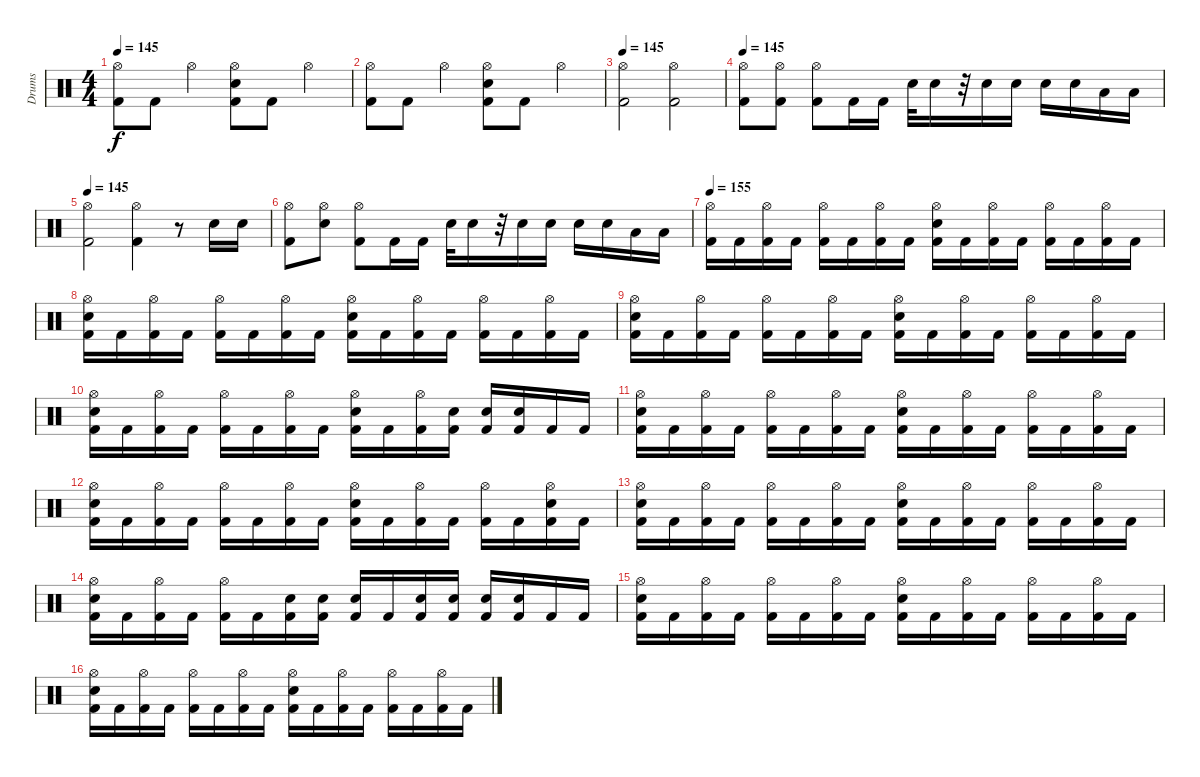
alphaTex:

\track ("Drums" "Drums") {instrument percussion}
\staff {score}
\articulation defaults
\ts (4 4)
\tempo 145
\clef neutral
\ks c
("Hi-Hat (open)" "Kick (hit) 2").8{dy f} "Kick (hit) 2".8 "Hi-Hat (open)".4 ("Hi-Hat (open)" "Electric Snare (hit)" "Kick (hit) 2").8 "Kick (hit) 2".8 "Hi-Hat (open)".4 |
("Hi-Hat (open)" "Kick (hit) 2").8 "Kick (hit) 2".8 "Hi-Hat (open)".4 ("Hi-Hat (open)" "Electric Snare (hit)" "Kick (hit) 2").8 "Kick (hit) 2".8 "Hi-Hat (open)".4 |
\tempo 145
("Hi-Hat (open)" "Kick (hit) 2").2 ("Hi-Hat (open)" "Kick (hit) 2").2 |
\tempo 145
("Hi-Hat (open)" "Kick (hit) 2").8 ("Hi-Hat (open)" "Kick (hit) 2").8 ("Hi-Hat (open)" "Kick (hit) 2").8 "Kick (hit) 2".16 "Kick (hit) 2".16 "Electric Snare (hit)".32 "Electric Snare (hit)".16 r.32 "Electric Snare (hit)".16 "Electric Snare (hit)".16 "Electric Snare (hit)".16 "Electric Snare (hit)".16 "Low Tom (hit)".16 "Low Tom (hit)".16 |
\tempo 145
("Hi-Hat (open)" "Kick (hit) 2").2 ("Hi-Hat (open)" "Kick (hit) 2").4 r.8 "Electric Snare (hit)".16 "Electric Snare (hit)".16 |
("Hi-Hat (open)" "Kick (hit) 2").8 ("Hi-Hat (open)" "Electric Snare (hit)").8 ("Hi-Hat (open)" "Kick (hit) 2").8 "Kick (hit) 2".16 "Kick (hit) 2".16 "Electric Snare (hit)".32 "Electric Snare (hit)".16 r.32 "Electric Snare (hit)".16 "Electric Snare (hit)".16 "Electric Snare (hit)".16 "Electric Snare (hit)".16 "Low Tom (hit)".16 "Low Tom (hit)".16 |
\tempo 155
("Hi-Hat (open)" "Kick (hit) 2").16 "Kick (hit) 2".16 ("Hi-Hat (open)" "Kick (hit) 2").16 "Kick (hit) 2".16 ("Hi-Hat (open)" "Kick (hit) 2").16 "Kick (hit) 2".16 ("Hi-Hat (open)" "Kick (hit) 2").16 "Kick (hit) 2".16 ("Hi-Hat (open)" "Electric Snare (hit)" "Kick (hit) 2").16 "Kick (hit) 2".16 ("Hi-Hat (open)" "Kick (hit) 2").16 "Kick (hit) 2".16 ("Hi-Hat (open)" "Kick (hit) 2").16 "Kick (hit) 2".16 ("Hi-Hat (open)" "Kick (hit) 2").16 "Kick (hit) 2".16 |
("Hi-Hat (open)" "Electric Snare (hit)" "Kick (hit) 2").16 "Kick (hit) 2".16 ("Hi-Hat (open)" "Kick (hit) 2").16 "Kick (hit) 2".16 ("Hi-Hat (open)" "Kick (hit) 2").16 "Kick (hit) 2".16 ("Hi-Hat (open)" "Kick (hit) 2").16 "Kick (hit) 2".16 ("Hi-Hat (open)" "Electric Snare (hit)" "Kick (hit) 2").16 "Kick (hit) 2".16 ("Hi-Hat (open)" "Kick (hit) 2").16 "Kick (hit) 2".16 ("Hi-Hat (open)" "Kick (hit) 2").16 "Kick (hit) 2".16 ("Hi-Hat (open)" "Kick (hit) 2").16 "Kick (hit) 2".16 |
("Hi-Hat (open)" "Electric Snare (hit)" "Kick (hit) 2").16 "Kick (hit) 2".16 ("Hi-Hat (open)" "Kick (hit) 2").16 "Kick (hit) 2".16 ("Hi-Hat (open)" "Kick (hit) 2").16 "Kick (hit) 2".16 ("Hi-Hat (open)" "Kick (hit) 2").16 "Kick (hit) 2".16 ("Hi-Hat (open)" "Electric Snare (hit)" "Kick (hit) 2").16 "Kick (hit) 2".16 ("Hi-Hat (open)" "Kick (hit) 2").16 "Kick (hit) 2".16 ("Hi-Hat (open)" "Kick (hit) 2").16 "Kick (hit) 2".16 ("Hi-Hat (open)" "Kick (hit) 2").16 "Kick (hit) 2".16 |
("Hi-Hat (open)" "Electric Snare (hit)" "Kick (hit) 2").16 "Kick (hit) 2".16 ("Hi-Hat (open)" "Kick (hit) 2").16 "Kick (hit) 2".16 ("Hi-Hat (open)" "Kick (hit) 2").16 "Kick (hit) 2".16 ("Hi-Hat (open)" "Kick (hit) 2").16 "Kick (hit) 2".16 ("Hi-Hat (open)" "Electric Snare (hit)" "Kick (hit) 2").16 "Kick (hit) 2".16 ("Hi-Hat (open)" "Kick (hit) 2").16 ("Electric Snare (hit)" "Kick (hit) 2").16 ("Electric Snare (hit)" "Kick (hit) 2").16 ("Electric Snare (hit)" "Kick (hit) 2").16 "Kick (hit) 2".16 "Kick (hit) 2".16 |
("Hi-Hat (open)" "Electric Snare (hit)" "Kick (hit) 2").16 "Kick (hit) 2".16 ("Hi-Hat (open)" "Kick (hit) 2").16 "Kick (hit) 2".16 ("Hi-Hat (open)" "Kick (hit) 2").16 "Kick (hit) 2".16 ("Hi-Hat (open)" "Kick (hit) 2").16 "Kick (hit) 2".16 ("Hi-Hat (open)" "Electric Snare (hit)" "Kick (hit) 2").16 "Kick (hit) 2".16 ("Hi-Hat (open)" "Kick (hit) 2").16 "Kick (hit) 2".16 ("Hi-Hat (open)" "Kick (hit) 2").16 "Kick (hit) 2".16 ("Hi-Hat (open)" "Kick (hit) 2").16 "Kick (hit) 2".16 |
("Hi-Hat (open)" "Electric Snare (hit)" "Kick (hit) 2").16 "Kick (hit) 2".16 ("Hi-Hat (open)" "Kick (hit) 2").16 "Kick (hit) 2".16 ("Hi-Hat (open)" "Kick (hit) 2").16 "Kick (hit) 2".16 ("Hi-Hat (open)" "Kick (hit) 2").16 "Kick (hit) 2".16 ("Hi-Hat (open)" "Electric Snare (hit)" "Kick (hit) 2").16 "Kick (hit) 2".16 ("Hi-Hat (open)" "Kick (hit) 2").16 "Kick (hit) 2".16 ("Hi-Hat (open)" "Kick (hit) 2").16 "Kick (hit) 2".16 ("Hi-Hat (open)" "Electric Snare (hit)" "Kick (hit) 2").16 "Kick (hit) 2".16 |
("Hi-Hat (open)" "Electric Snare (hit)" "Kick (hit) 2").16 "Kick (hit) 2".16 ("Hi-Hat (open)" "Kick (hit) 2").16 "Kick (hit) 2".16 ("Hi-Hat (open)" "Kick (hit) 2").16 "Kick (hit) 2".16 ("Hi-Hat (open)" "Kick (hit) 2").16 "Kick (hit) 2".16 ("Hi-Hat (open)" "Electric Snare (hit)" "Kick (hit) 2").16 "Kick (hit) 2".16 ("Hi-Hat (open)" "Kick (hit) 2").16 "Kick (hit) 2".16 ("Hi-Hat (open)" "Kick (hit) 2").16 "Kick (hit) 2".16 ("Hi-Hat (open)" "Kick (hit) 2").16 "Kick (hit) 2".16 |
("Hi-Hat (open)" "Electric Snare (hit)" "Kick (hit) 2").16 "Kick (hit) 2".16 ("Hi-Hat (open)" "Kick (hit) 2").16 "Kick (hit) 2".16 ("Hi-Hat (open)" "Kick (hit) 2").16 "Kick (hit) 2".16 ("Electric Snare (hit)" "Kick (hit) 2").16 ("Electric Snare (hit)" "Kick (hit) 2").16 ("Electric Snare (hit)" "Kick (hit) 2").16 "Kick (hit) 2".16 ("Electric Snare (hit)" "Kick (hit) 2").16 ("Electric Snare (hit)" "Kick (hit) 2").16 ("Electric Snare (hit)" "Kick (hit) 2").16 ("Electric Snare (hit)" "Kick (hit) 2").16 "Kick (hit) 2".16 "Kick (hit) 2".16 |
("Hi-Hat (open)" "Electric Snare (hit)" "Kick (hit) 2").16 "Kick (hit) 2".16 ("Hi-Hat (open)" "Kick (hit) 2").16 "Kick (hit) 2".16 ("Hi-Hat (open)" "Kick (hit) 2").16 "Kick (hit) 2".16 ("Hi-Hat (open)" "Kick (hit) 2").16 "Kick (hit) 2".16 ("Hi-Hat (open)" "Electric Snare (hit)" "Kick (hit) 2").16 "Kick (hit) 2".16 ("Hi-Hat (open)" "Kick (hit) 2").16 "Kick (hit) 2".16 ("Hi-Hat (open)" "Kick (hit) 2").16 "Kick (hit) 2".16 ("Hi-Hat (open)" "Kick (hit) 2").16 "Kick (hit) 2".16 |
("Hi-Hat (open)" "Electric Snare (hit)" "Kick (hit) 2").16 "Kick (hit) 2".16 ("Hi-Hat (open)" "Kick (hit) 2").16 "Kick (hit) 2".16 ("Hi-Hat (open)" "Kick (hit) 2").16 "Kick (hit) 2".16 ("Hi-Hat (open)" "Kick (hit) 2").16 "Kick (hit) 2".16 ("Hi-Hat (open)" "Electric Snare (hit)" "Kick (hit) 2").16 "Kick (hit) 2".16 ("Hi-Hat (open)" "Kick (hit) 2").16 "Kick (hit) 2".16 ("Hi-Hat (open)" "Kick (hit) 2").16 "Kick (hit) 2".16 ("Hi-Hat (open)" "Kick (hit) 2").16 "Kick (hit) 2".16
